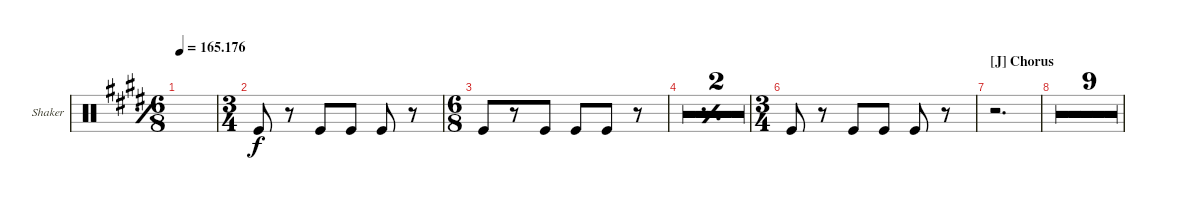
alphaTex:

\defaultSystemsLayout 4
\bracketExtendMode groupsimilarinstruments
\firstSystemTrackNameOrientation horizontal
\otherSystemsTrackNameOrientation horizontal
\track ("Shaker" "Shaker") {multiBarRest instrument percussion}
\staff {score}
\articulation defaults
\ts (6 8)
\tempo
165.176
\accidentals auto
\clef neutral
\ottava regular
\simile simple
\ks e
|
\ts (3 4)
\simile none "Kick (hit)".8
r.8 "Kick (hit)".8 "Kick (hit)".8 "Kick (hit)".8 r.8 |
\ts (6 8)
"Kick (hit)".8 r.8 "Kick (hit)".8 "Kick (hit)".8 "Kick (hit)".8 r.8 |
\simile simple
|
|
\ts (3 4)
\simile none "Kick (hit)".8
r.8 "Kick (hit)".8 "Kick (hit)".8 "Kick (hit)".8 r.8 |
\section ("J" "Chorus")
r.2{d} |
r.2{d} |
r.2{d} |
r.2{d} |
r.2{d} |
r.2{d} |
r.2{d} |
r.2{d} |
r.2{d} |
r.2{d}
